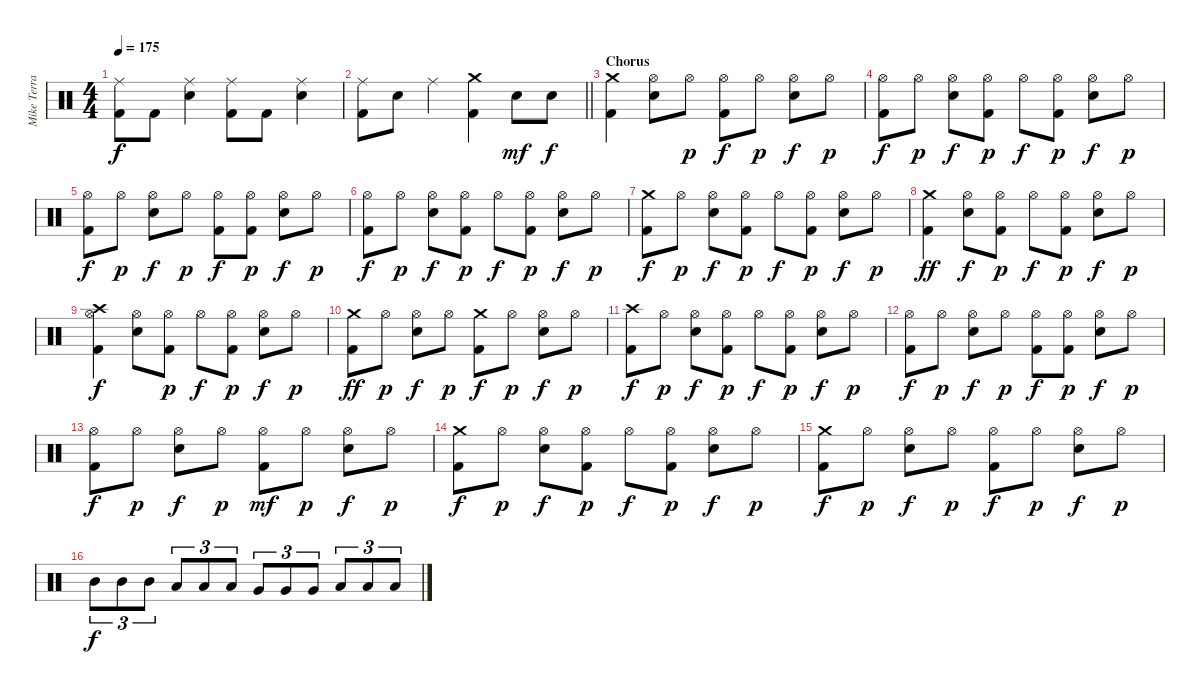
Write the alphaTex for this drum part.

\track ("Mike Terrana" "Mike Terra") {instrument percussion}
\staff {score}
\articulation defaults
\ts (4 4)
\tempo 175
\clef neutral
\ks c
("Ride (middle)" "Kick (hit) 2").8{dy f} "Kick (hit) 2".8 ("Ride (middle)" "Snare (hit) 2").4 ("Ride (middle)" "Kick (hit) 2").8 "Kick (hit) 2".8 ("Ride (middle)" "Snare (hit) 2").4 |
\barLineRight lightlight
("Ride (middle)" "Kick (hit) 2").8 "Snare (hit) 2".8 "Ride (middle)".4 ("Crash medium (hit)" "Kick (hit) 2").4 "Snare (hit) 2".8{dy mf} "Snare (hit) 2".8{dy f} |
\section ("" "Chorus")
("Crash medium (hit)" "Kick (hit) 2").4 ("Hi-Hat (open)" "Snare (hit) 2").8 "Hi-Hat (open)".8{dy p} ("Hi-Hat (open)" "Kick (hit) 2").8{dy f} "Hi-Hat (open)".8{dy p} ("Hi-Hat (open)" "Snare (hit) 2").8{dy f} "Hi-Hat (open)".8{dy p} |
("Hi-Hat (open)" "Kick (hit) 2").8{dy f} "Hi-Hat (open)".8{dy p} ("Hi-Hat (open)" "Snare (hit) 2").8{dy f} ("Hi-Hat (open)" "Kick (hit) 2").8{dy p} "Hi-Hat (open)".8{dy f} ("Hi-Hat (open)" "Kick (hit) 2").8{dy p} ("Hi-Hat (open)" "Snare (hit) 2").8{dy f} "Hi-Hat (open)".8{dy p} |
("Hi-Hat (open)" "Kick (hit) 2").8{dy f} "Hi-Hat (open)".8{dy p} ("Hi-Hat (open)" "Snare (hit) 2").8{dy f} "Hi-Hat (open)".8{dy p} ("Hi-Hat (open)" "Kick (hit) 2").8{dy f} ("Hi-Hat (open)" "Kick (hit) 2").8{dy p} ("Hi-Hat (open)" "Snare (hit) 2").8{dy f} "Hi-Hat (open)".8{dy p} |
("Hi-Hat (open)" "Kick (hit) 2").8{dy f} "Hi-Hat (open)".8{dy p} ("Hi-Hat (open)" "Snare (hit) 2").8{dy f} ("Hi-Hat (open)" "Kick (hit) 2").8{dy p} "Hi-Hat (open)".8{dy f} ("Hi-Hat (open)" "Kick (hit) 2").8{dy p} ("Hi-Hat (open)" "Snare (hit) 2").8{dy f} "Hi-Hat (open)".8{dy p} |
("Crash medium (hit)" "Kick (hit) 2").8{dy f} "Hi-Hat (open)".8{dy p} ("Hi-Hat (open)" "Snare (hit) 2").8{dy f} ("Hi-Hat (open)" "Kick (hit) 2").8{dy p} "Hi-Hat (open)".8{dy f} ("Hi-Hat (open)" "Kick (hit) 2").8{dy p} ("Hi-Hat (open)" "Snare (hit) 2").8{dy f} "Hi-Hat (open)".8{dy p} |
("Crash medium (hit)" "Kick (hit) 2").4{dy ff} ("Hi-Hat (open)" "Snare (hit) 2").8{dy f} ("Hi-Hat (open)" "Kick (hit) 2").8{dy p} "Hi-Hat (open)".8{dy f} ("Hi-Hat (open)" "Kick (hit) 2").8{dy p} ("Hi-Hat (open)" "Snare (hit) 2").8{dy f} "Hi-Hat (open)".8{dy p} |
("Hi-Hat (open)" "Crash high (hit)" "Kick (hit) 2").4{dy f} ("Hi-Hat (open)" "Snare (hit) 2").8 ("Hi-Hat (open)" "Kick (hit) 2").8{dy p} "Hi-Hat (open)".8{dy f} ("Hi-Hat (open)" "Kick (hit) 2").8{dy p} ("Hi-Hat (open)" "Snare (hit) 2").8{dy f} "Hi-Hat (open)".8{dy p} |
("Crash medium (hit)" "Kick (hit) 2").8{dy ff} "Hi-Hat (open)".8{dy p} ("Hi-Hat (open)" "Snare (hit) 2").8{dy f} "Hi-Hat (open)".8{dy p} ("Crash medium (hit)" "Kick (hit) 2").8{dy f} "Hi-Hat (open)".8{dy p} ("Hi-Hat (open)" "Snare (hit) 2").8{dy f} "Hi-Hat (open)".8{dy p} |
("Crash high (hit)" "Kick (hit) 2").8{dy f} "Hi-Hat (open)".8{dy p} ("Hi-Hat (open)" "Snare (hit) 2").8{dy f} ("Hi-Hat (open)" "Kick (hit) 2").8{dy p} "Hi-Hat (open)".8{dy f} ("Hi-Hat (open)" "Kick (hit) 2").8{dy p} ("Hi-Hat (open)" "Snare (hit) 2").8{dy f} "Hi-Hat (open)".8{dy p} |
("Hi-Hat (open)" "Kick (hit) 2").8{dy f} "Hi-Hat (open)".8{dy p} ("Hi-Hat (open)" "Snare (hit) 2").8{dy f} "Hi-Hat (open)".8{dy p} ("Hi-Hat (open)" "Kick (hit) 2").8{dy f} ("Hi-Hat (open)" "Kick (hit) 2").8{dy p} ("Hi-Hat (open)" "Snare (hit) 2").8{dy f} "Hi-Hat (open)".8{dy p} |
("Hi-Hat (open)" "Kick (hit) 2").8{dy f} "Hi-Hat (open)".8{dy p} ("Hi-Hat (open)" "Snare (hit) 2").8{dy f} "Hi-Hat (open)".8{dy p} ("Hi-Hat (open)" "Kick (hit) 2").8{dy mf} "Hi-Hat (open)".8{dy p} ("Hi-Hat (open)" "Snare (hit) 2").8{dy f} "Hi-Hat (open)".8{dy p} |
("Crash medium (hit)" "Kick (hit) 2").8{dy f} "Hi-Hat (open)".8{dy p} ("Hi-Hat (open)" "Snare (hit) 2").8{dy f} ("Hi-Hat (open)" "Kick (hit) 2").8{dy p} "Hi-Hat (open)".8{dy f} ("Hi-Hat (open)" "Kick (hit) 2").8{dy p} ("Hi-Hat (open)" "Snare (hit) 2").8{dy f} "Hi-Hat (open)".8{dy p} |
("Crash medium (hit)" "Kick (hit) 2").8{dy f} "Hi-Hat (open)".8{dy p} ("Hi-Hat (open)" "Snare (hit) 2").8{dy f} "Hi-Hat (open)".8{dy p} ("Hi-Hat (open)" "Kick (hit) 2").8{dy f} "Hi-Hat (open)".8{dy p} ("Hi-Hat (open)" "Snare (hit) 2").8{dy f} "Hi-Hat (open)".8{dy p} |
"Mid Tom (hit)".8{tu (3 2) dy f} "Mid Tom (hit)".8{tu (3 2)} "Mid Tom (hit)".8{tu (3 2)} "Low Tom (hit)".8{tu (3 2)} "Low Tom (hit)".8{tu (3 2)} "Low Tom (hit)".8{tu (3 2)} "Very Low Tom (hit)".8{tu (3 2)} "Very Low Tom (hit)".8{tu (3 2)} "Very Low Tom (hit)".8{tu (3 2)} "Low Floor Tom (hit)".8{tu (3 2)} "Low Floor Tom (hit)".8{tu (3 2)} "Low Floor Tom (hit)".8{tu (3 2)}
